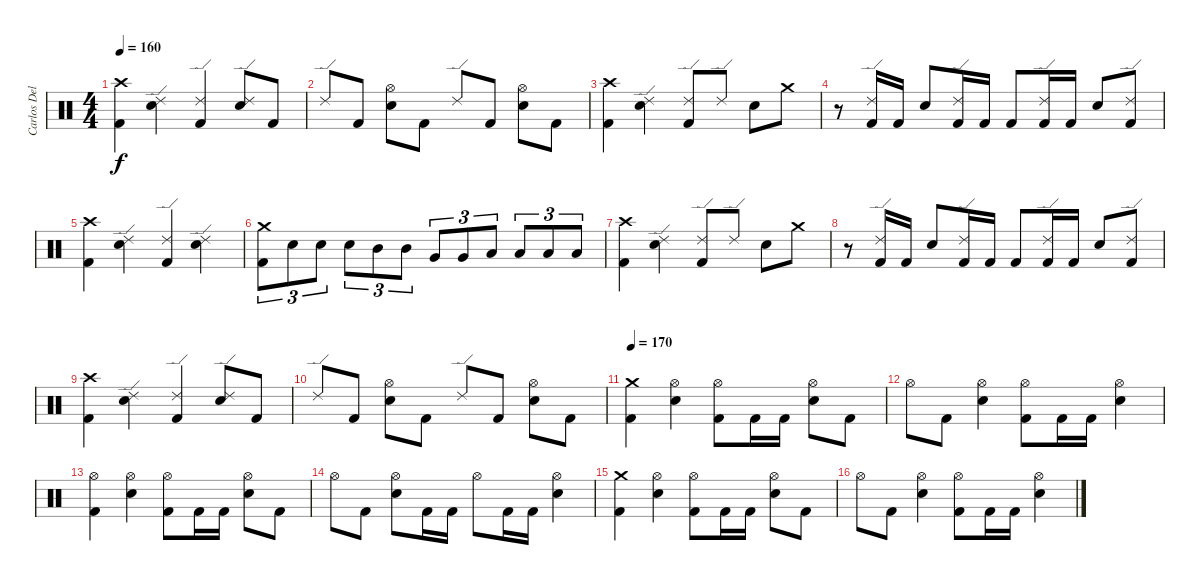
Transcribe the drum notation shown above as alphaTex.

\track ("Carlos Delgado" "Carlos Del") {instrument percussion}
\staff {score}
\articulation defaults
\ts (4 4)
\tempo 160
\clef neutral
\ks c
("Crash high (hit)" "Kick (hit) 2").4{dy f} ("Ride (edge) 2" "Electric Snare (hit)").4 ("Ride (edge) 2" "Kick (hit) 2").4 ("Ride (edge) 2" "Electric Snare (hit)").8 "Kick (hit) 2".8 |
"Ride (edge) 2".8 "Kick (hit) 2".8 ("Hi-Hat (open)" "Electric Snare (hit)").8 "Kick (hit) 2".8 "Ride (edge) 2".8 "Kick (hit) 2".8 ("Hi-Hat (open)" "Electric Snare (hit)").8 "Kick (hit) 2".8 |
("Crash high (hit)" "Kick (hit) 2").4 ("Ride (edge) 2" "Electric Snare (hit)").4 ("Ride (edge) 2" "Kick (hit) 2").8 "Ride (edge) 2".8 "Electric Snare (hit)".8 "Crash medium (hit)".8 |
r.8 ("Ride (edge) 2" "Kick (hit) 2").16 "Kick (hit) 2".16 "Electric Snare (hit)".8 ("Ride (edge) 2" "Kick (hit) 2").16 "Kick (hit) 2".16 "Kick (hit) 2".8 ("Ride (edge) 2" "Kick (hit) 2").16 "Kick (hit) 2".16 "Electric Snare (hit)".8 ("Ride (edge) 2" "Kick (hit) 2").8 |
("Crash high (hit)" "Kick (hit) 2").4 ("Ride (edge) 2" "Electric Snare (hit)").4 ("Ride (edge) 2" "Kick (hit) 2").4 ("Ride (edge) 2" "Electric Snare (hit)").4 |
("Crash medium (hit)" "Kick (hit) 2").8{tu (3 2)} "Electric Snare (hit)".8{tu (3 2)} "Electric Snare (hit)".8{tu (3 2)} "Electric Snare (hit)".8{tu (3 2)} "Mid Tom (hit)".8{tu (3 2)} "Mid Tom (hit)".8{tu (3 2)} "Very Low Tom (hit)".8{tu (3 2)} "Very Low Tom (hit)".8{tu (3 2)} "Low Tom (hit)".8{tu (3 2)} "Low Tom (hit)".8{tu (3 2)} "Low Floor Tom (hit)".8{tu (3 2)} "Low Floor Tom (hit)".8{tu (3 2)} |
("Crash high (hit)" "Kick (hit) 2").4 ("Ride (edge) 2" "Electric Snare (hit)").4 ("Ride (edge) 2" "Kick (hit) 2").8 "Ride (edge) 2".8 "Electric Snare (hit)".8 "Crash medium (hit)".8 |
r.8 ("Ride (edge) 2" "Kick (hit) 2").16 "Kick (hit) 2".16 "Electric Snare (hit)".8 ("Ride (edge) 2" "Kick (hit) 2").16 "Kick (hit) 2".16 "Kick (hit) 2".8 ("Ride (edge) 2" "Kick (hit) 2").16 "Kick (hit) 2".16 "Electric Snare (hit)".8 ("Ride (edge) 2" "Kick (hit) 2").8 |
("Crash high (hit)" "Kick (hit) 2").4 ("Ride (edge) 2" "Electric Snare (hit)").4 ("Ride (edge) 2" "Kick (hit) 2").4 ("Ride (edge) 2" "Electric Snare (hit)").8 "Kick (hit) 2".8 |
"Ride (edge) 2".8 "Kick (hit) 2".8 ("Hi-Hat (open)" "Electric Snare (hit)").8 "Kick (hit) 2".8 "Ride (edge) 2".8 "Kick (hit) 2".8 ("Hi-Hat (open)" "Electric Snare (hit)").8 "Kick (hit) 2".8 |
\tempo 170
("Crash medium (hit)" "Kick (hit) 2").4 ("Hi-Hat (open)" "Electric Snare (hit)").4 ("Hi-Hat (open)" "Kick (hit) 2").8 "Kick (hit) 2".16 "Kick (hit) 2".16 ("Hi-Hat (open)" "Electric Snare (hit)").8 "Kick (hit) 2".8 |
"Hi-Hat (open)".8 "Kick (hit) 2".8 ("Hi-Hat (open)" "Electric Snare (hit)").4 ("Hi-Hat (open)" "Kick (hit) 2").8 "Kick (hit) 2".16 "Kick (hit) 2".16 ("Hi-Hat (open)" "Electric Snare (hit)").4 |
("Hi-Hat (open)" "Kick (hit) 2").4 ("Hi-Hat (open)" "Electric Snare (hit)").4 ("Hi-Hat (open)" "Kick (hit) 2").8 "Kick (hit) 2".16 "Kick (hit) 2".16 ("Hi-Hat (open)" "Electric Snare (hit)").8 "Kick (hit) 2".8 |
"Hi-Hat (open)".8 "Kick (hit) 2".8 ("Hi-Hat (open)" "Electric Snare (hit)").8 "Kick (hit) 2".16 "Kick (hit) 2".16 "Hi-Hat (open)".8 "Kick (hit) 2".16 "Kick (hit) 2".16 ("Hi-Hat (open)" "Electric Snare (hit)").4 |
("Crash medium (hit)" "Kick (hit) 2").4 ("Hi-Hat (open)" "Electric Snare (hit)").4 ("Hi-Hat (open)" "Kick (hit) 2").8 "Kick (hit) 2".16 "Kick (hit) 2".16 ("Hi-Hat (open)" "Electric Snare (hit)").8 "Kick (hit) 2".8 |
"Hi-Hat (open)".8 "Kick (hit) 2".8 ("Hi-Hat (open)" "Electric Snare (hit)").4 ("Hi-Hat (open)" "Kick (hit) 2").8 "Kick (hit) 2".16 "Kick (hit) 2".16 ("Hi-Hat (open)" "Electric Snare (hit)").4
